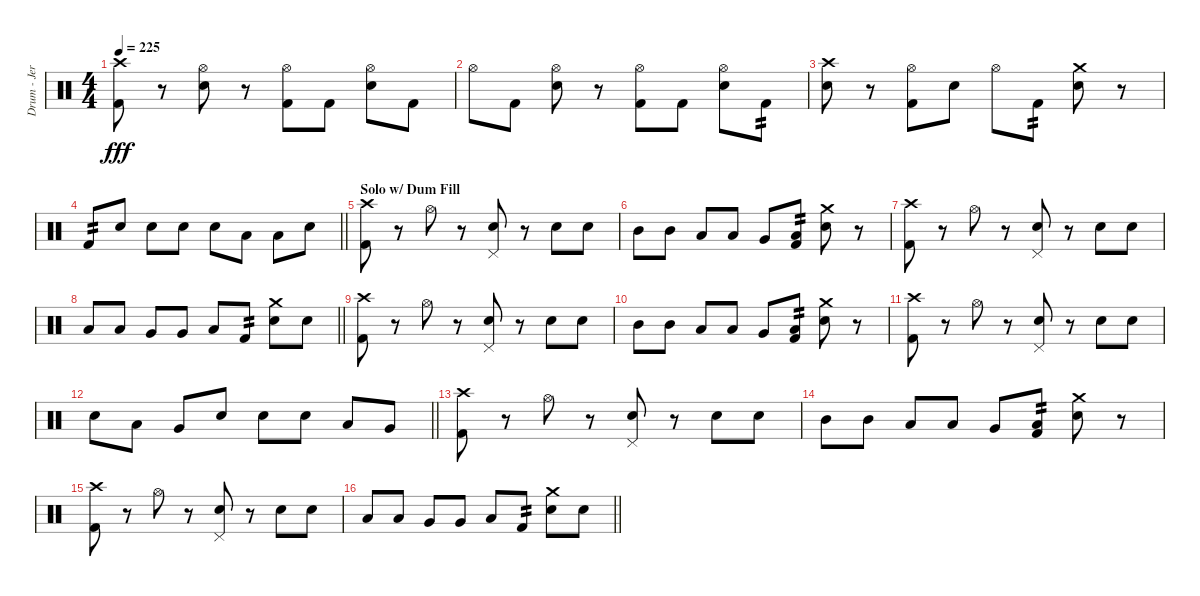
\track ("Drum - Jerinx" "Drum - Jer") {instrument percussion}
\staff {score}
\articulation defaults
\ts (4 4)
\tempo 225
\clef neutral
\ks c
("Kick (hit) 2" "Crash high (hit)").8{dy fff} r.8 ("Hi-Hat (open)" "Snare (hit) 2").8 r.8 ("Hi-Hat (open)" "Kick (hit) 2").8 "Kick (hit) 2".8 ("Hi-Hat (open)" "Snare (hit) 2").8 "Kick (hit) 2".8 |
"Hi-Hat (open)".8 "Kick (hit) 2".8 ("Hi-Hat (open)" "Snare (hit) 2").8 r.8 ("Hi-Hat (open)" "Kick (hit) 2").8 "Kick (hit) 2".8 ("Hi-Hat (open)" "Snare (hit) 2").8 "Kick (hit) 2".8{tp 2} |
("Snare (hit) 2" "Crash high (hit)").8 r.8 ("Hi-Hat (open)" "Kick (hit) 2").8 "Snare (hit) 2".8 "Hi-Hat (open)".8 "Kick (hit) 2".8{tp 2} ("Snare (hit) 2" "Crash medium (hit)").8 r.8 |
\barLineRight lightlight "Kick (hit) 2".8{tp 2} "Snare (hit) 2".8 "Snare (hit) 2".8 "Snare (hit) 2".8 "Snare (hit) 2".8 "Low Tom (hit)".8 "Low Tom (hit)".8 "Snare (hit) 2".8
|
\section ("" "Solo w/ Dum Fill")
("Kick (hit) 2" "Crash high (hit)").8 r.8 "Hi-Hat (open)".8 r.8 ("Pedal Hi-Hat (hit)" "Snare (hit) 2").8 r.8 "Snare (hit) 2".8 "Snare (hit) 2".8 |
"Mid Tom (hit)".8 "Mid Tom (hit)".8 "Low Tom (hit)".8 "Low Tom (hit)".8 "Very Low Tom (hit)".8 ("Kick (hit) 2" "Low Floor Tom (hit)").8{tp 2} ("Snare (hit) 2" "Crash medium (hit)").8 r.8 |
("Kick (hit) 2" "Crash high (hit)").8 r.8 "Hi-Hat (open)".8 r.8 ("Pedal Hi-Hat (hit)" "Snare (hit) 2").8 r.8 "Snare (hit) 2".8 "Snare (hit) 2".8 |
\barLineRight lightlight "Low Tom (hit)".8 "Low Tom (hit)".8 "Very Low Tom (hit)".8 "Very Low Tom (hit)".8 "Low Floor Tom (hit)".8 "Kick (hit) 2".8{tp 2}
("Snare (hit) 2" "Crash medium (hit)").8 "Snare (hit) 2".8 |
("Kick (hit) 2" "Crash high (hit)").8 r.8 "Hi-Hat (open)".8 r.8 ("Pedal Hi-Hat (hit)" "Snare (hit) 2").8 r.8 "Snare (hit) 2".8 "Snare (hit) 2".8 |
"Mid Tom (hit)".8 "Mid Tom (hit)".8 "Low Tom (hit)".8 "Low Tom (hit)".8 "Very Low Tom (hit)".8 ("Kick (hit) 2" "Low Floor Tom (hit)").8{tp 2} ("Snare (hit) 2" "Crash medium (hit)").8 r.8 |
("Kick (hit) 2" "Crash high (hit)").8 r.8 "Hi-Hat (open)".8 r.8 ("Pedal Hi-Hat (hit)" "Snare (hit) 2").8 r.8 "Snare (hit) 2".8 "Snare (hit) 2".8 |
\barLineRight lightlight "Snare (hit) 2".8 "Low Tom (hit)".8 "Very Low Tom (hit)".8 "Snare (hit) 2".8 "Snare (hit) 2".8 "Snare (hit) 2".8 "Low Tom (hit)".8 "Very Low Tom (hit)".8
|
("Kick (hit) 2" "Crash high (hit)").8 r.8 "Hi-Hat (open)".8 r.8 ("Pedal Hi-Hat (hit)" "Snare (hit) 2").8 r.8 "Snare (hit) 2".8 "Snare (hit) 2".8 |
"Mid Tom (hit)".8 "Mid Tom (hit)".8 "Low Tom (hit)".8 "Low Tom (hit)".8 "Very Low Tom (hit)".8 ("Kick (hit) 2" "Low Floor Tom (hit)").8{tp 2} ("Snare (hit) 2" "Crash medium (hit)").8 r.8 |
("Kick (hit) 2" "Crash high (hit)").8 r.8 "Hi-Hat (open)".8 r.8 ("Pedal Hi-Hat (hit)" "Snare (hit) 2").8 r.8 "Snare (hit) 2".8 "Snare (hit) 2".8 |
\barLineRight lightlight "Low Tom (hit)".8 "Low Tom (hit)".8 "Very Low Tom (hit)".8 "Very Low Tom (hit)".8 "Low Floor Tom (hit)".8 "Kick (hit) 2".8{tp 2}
("Snare (hit) 2" "Crash medium (hit)").8 "Snare (hit) 2".8
